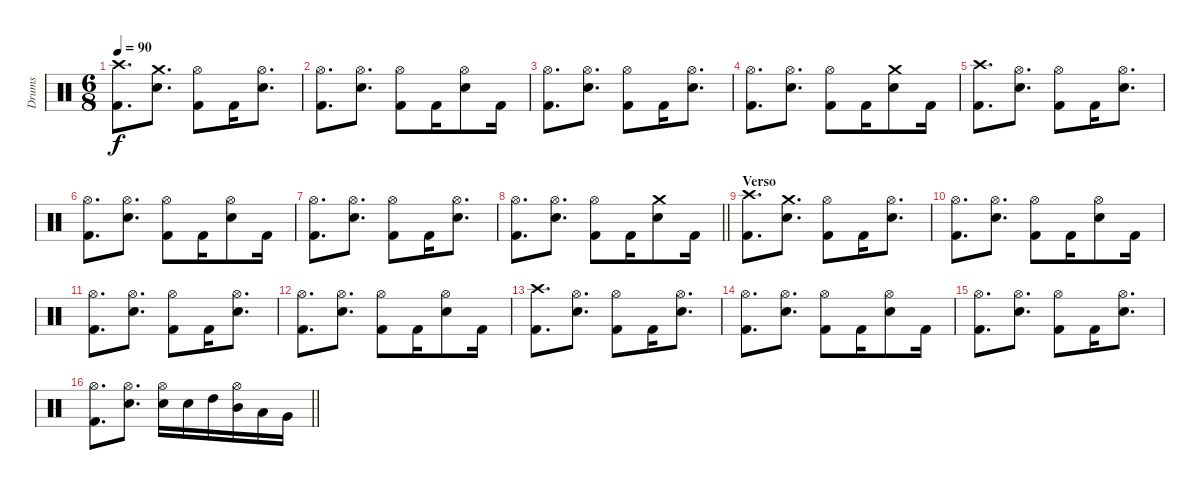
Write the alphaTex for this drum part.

\track ("Drums" "Drums") {instrument percussion}
\staff {score}
\articulation defaults
\ts (6 8)
\section ("" "")
\tempo 90
\clef neutral
\ks c
("Kick (hit) 2" "Crash high (hit)").8{d dy f} ("Electric Snare (hit)" "Crash medium (hit)").8{d} ("Kick (hit) 2" "Hi-Hat (open)").8 "Kick (hit) 2".16 ("Electric Snare (hit)" "Hi-Hat (open)").8{d} |
("Kick (hit) 2" "Hi-Hat (open)").8{d} ("Electric Snare (hit)" "Hi-Hat (open)").8{d} ("Kick (hit) 2" "Hi-Hat (open)").8 "Kick (hit) 2".16 ("Electric Snare (hit)" "Hi-Hat (open)").8 "Kick (hit) 2".16 |
("Kick (hit) 2" "Hi-Hat (open)").8{d} ("Electric Snare (hit)" "Hi-Hat (open)").8{d} ("Kick (hit) 2" "Hi-Hat (open)").8 "Kick (hit) 2".16 ("Electric Snare (hit)" "Hi-Hat (open)").8{d} |
("Kick (hit) 2" "Hi-Hat (open)").8{d} ("Electric Snare (hit)" "Hi-Hat (open)").8{d} ("Kick (hit) 2" "Hi-Hat (open)").8 "Kick (hit) 2".16 ("Electric Snare (hit)" "Crash medium (hit)").8 "Kick (hit) 2".16 |
("Kick (hit) 2" "Crash high (hit)").8{d} ("Electric Snare (hit)" "Hi-Hat (open)").8{d} ("Kick (hit) 2" "Hi-Hat (open)").8 "Kick (hit) 2".16 ("Electric Snare (hit)" "Hi-Hat (open)").8{d} |
("Kick (hit) 2" "Hi-Hat (open)").8{d} ("Electric Snare (hit)" "Hi-Hat (open)").8{d} ("Kick (hit) 2" "Hi-Hat (open)").8 "Kick (hit) 2".16 ("Electric Snare (hit)" "Hi-Hat (open)").8 "Kick (hit) 2".16 |
("Kick (hit) 2" "Hi-Hat (open)").8{d} ("Electric Snare (hit)" "Hi-Hat (open)").8{d} ("Kick (hit) 2" "Hi-Hat (open)").8 "Kick (hit) 2".16 ("Electric Snare (hit)" "Hi-Hat (open)").8{d} |
\barLineRight lightlight
("Kick (hit) 2" "Hi-Hat (open)").8{d} ("Electric Snare (hit)" "Hi-Hat (open)").8{d} ("Kick (hit) 2" "Hi-Hat (open)").8 "Kick (hit) 2".16 ("Electric Snare (hit)" "Crash medium (hit)").8 "Kick (hit) 2".16 |
\section ("" "Verso")
("Kick (hit) 2" "Crash high (hit)").8{d} ("Electric Snare (hit)" "Crash medium (hit)").8{d} ("Kick (hit) 2" "Hi-Hat (open)").8 "Kick (hit) 2".16 ("Electric Snare (hit)" "Hi-Hat (open)").8{d} |
("Kick (hit) 2" "Hi-Hat (open)").8{d} ("Electric Snare (hit)" "Hi-Hat (open)").8{d} ("Kick (hit) 2" "Hi-Hat (open)").8 "Kick (hit) 2".16 ("Electric Snare (hit)" "Hi-Hat (open)").8 "Kick (hit) 2".16 |
("Kick (hit) 2" "Hi-Hat (open)").8{d} ("Electric Snare (hit)" "Hi-Hat (open)").8{d} ("Kick (hit) 2" "Hi-Hat (open)").8 "Kick (hit) 2".16 ("Electric Snare (hit)" "Hi-Hat (open)").8{d} |
("Kick (hit) 2" "Hi-Hat (open)").8{d} ("Electric Snare (hit)" "Hi-Hat (open)").8{d} ("Kick (hit) 2" "Hi-Hat (open)").8 "Kick (hit) 2".16 ("Electric Snare (hit)" "Hi-Hat (open)").8 "Kick (hit) 2".16 |
("Kick (hit) 2" "Crash high (hit)").8{d} ("Electric Snare (hit)" "Hi-Hat (open)").8{d} ("Kick (hit) 2" "Hi-Hat (open)").8 "Kick (hit) 2".16 ("Electric Snare (hit)" "Hi-Hat (open)").8{d} |
("Kick (hit) 2" "Hi-Hat (open)").8{d} ("Electric Snare (hit)" "Hi-Hat (open)").8{d} ("Kick (hit) 2" "Hi-Hat (open)").8 "Kick (hit) 2".16 ("Electric Snare (hit)" "Hi-Hat (open)").8 "Kick (hit) 2".16 |
("Kick (hit) 2" "Hi-Hat (open)").8{d} ("Electric Snare (hit)" "Hi-Hat (open)").8{d} ("Kick (hit) 2" "Hi-Hat (open)").8 "Kick (hit) 2".16 ("Electric Snare (hit)" "Hi-Hat (open)").8{d} |
\barLineRight lightlight
("Kick (hit) 2" "Hi-Hat (open)").8{d} ("Electric Snare (hit)" "Hi-Hat (open)").8{d} ("Electric Snare (hit)" "Hi-Hat (open)").16 "Electric Snare (hit)".16 "High Tom (hit)".16 ("Mid Tom (hit)" "Hi-Hat (open)").16 "Low Tom (hit)".16 "Very Low Tom (hit)".16
